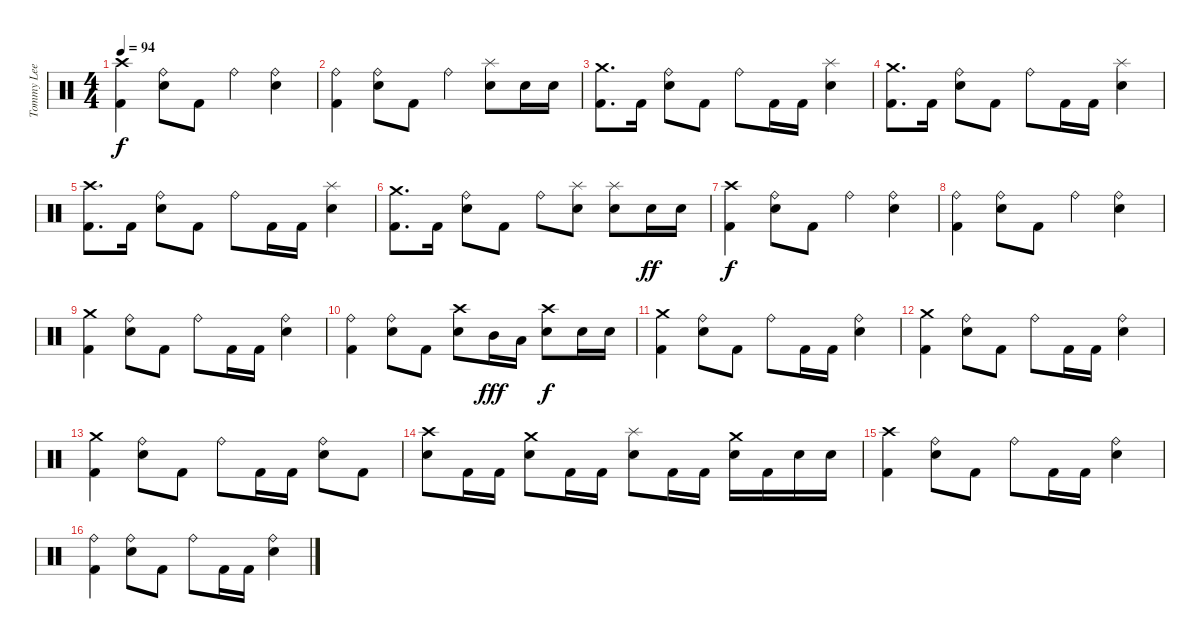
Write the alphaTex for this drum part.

\track ("Tommy Lee" "Tommy Lee") {instrument percussion}
\staff {score}
\articulation defaults
\ts (4 4)
\tempo 94
\clef neutral
\ks c
("Crash high (hit)" "Kick (hit) 2").4{dy f} ("Ride (bell)" "Snare (hit) 2").8 "Kick (hit) 2".8 "Ride (bell)".4 ("Ride (bell)" "Snare (hit) 2").4 |
("Ride (bell)" "Kick (hit) 2").4 ("Ride (bell)" "Snare (hit) 2").8 "Kick (hit) 2".8 "Ride (bell)".4 ("Splash (hit)" "Snare (hit) 2").8 "Snare (hit) 2".16 "Snare (hit) 2".16 |
("Crash medium (hit)" "Kick (hit) 2").8{d} "Kick (hit) 2".16 ("Ride (bell)" "Snare (hit) 2").8 "Kick (hit) 2".8 "Ride (bell)".8 "Kick (hit) 2".16 "Kick (hit) 2".16 ("Splash (hit)" "Snare (hit) 2").4 |
("Crash medium (hit)" "Kick (hit) 2").8{d} "Kick (hit) 2".16 ("Ride (bell)" "Snare (hit) 2").8 "Kick (hit) 2".8 "Ride (bell)".8 "Kick (hit) 2".16 "Kick (hit) 2".16 ("Splash (hit)" "Snare (hit) 2").4 |
("Crash high (hit)" "Kick (hit) 2").8{d} "Kick (hit) 2".16 ("Ride (bell)" "Snare (hit) 2").8 "Kick (hit) 2".8 "Ride (bell)".8 "Kick (hit) 2".16 "Kick (hit) 2".16 ("Splash (hit)" "Snare (hit) 2").4 |
("Crash medium (hit)" "Kick (hit) 2").8{d} "Kick (hit) 2".16 ("Ride (bell)" "Snare (hit) 2").8 "Kick (hit) 2".8 "Ride (bell)".8 ("Splash (hit)" "Snare (hit) 2").8 ("Splash (hit)" "Snare (hit) 2").8 "Snare (hit) 2".16{dy ff} "Snare (hit) 2".16 |
("Crash high (hit)" "Kick (hit) 2").4{dy f} ("Ride (bell)" "Snare (hit) 2").8 "Kick (hit) 2".8 "Ride (bell)".4 ("Ride (bell)" "Snare (hit) 2").4 |
("Ride (bell)" "Kick (hit) 2").4 ("Ride (bell)" "Snare (hit) 2").8 "Kick (hit) 2".8 "Ride (bell)".4 ("Ride (bell)" "Snare (hit) 2").4 |
("Crash medium (hit)" "Kick (hit) 2").4 ("Ride (bell)" "Snare (hit) 2").8 "Kick (hit) 2".8 "Ride (bell)".8 "Kick (hit) 2".16 "Kick (hit) 2".16 ("Ride (bell)" "Snare (hit) 2").4 |
("Ride (bell)" "Kick (hit) 2").4 ("Ride (bell)" "Snare (hit) 2").8 "Kick (hit) 2".8 ("Crash high (hit)" "Snare (hit) 2").8 "Mid Tom (hit)".16{dy fff} "Low Tom (hit)".16 ("Crash high (hit)" "Snare (hit) 2").8{dy f} "Snare (hit) 2".16 "Snare (hit) 2".16 |
("Crash medium (hit)" "Kick (hit) 2").4 ("Ride (bell)" "Snare (hit) 2").8 "Kick (hit) 2".8 "Ride (bell)".8 "Kick (hit) 2".16 "Kick (hit) 2".16 ("Ride (bell)" "Snare (hit) 2").4 |
("Crash medium (hit)" "Kick (hit) 2").4 ("Ride (bell)" "Snare (hit) 2").8 "Kick (hit) 2".8 "Ride (bell)".8 "Kick (hit) 2".16 "Kick (hit) 2".16 ("Ride (bell)" "Snare (hit) 2").4 |
("Crash medium (hit)" "Kick (hit) 2").4 ("Ride (bell)" "Snare (hit) 2").8 "Kick (hit) 2".8 "Ride (bell)".8 "Kick (hit) 2".16 "Kick (hit) 2".16 ("Ride (bell)" "Snare (hit) 2").8 "Kick (hit) 2".8 |
("Crash high (hit)" "Snare (hit) 2").8 "Kick (hit) 2".16 "Kick (hit) 2".16 ("Crash medium (hit)" "Snare (hit) 2").8 "Kick (hit) 2".16 "Kick (hit) 2".16 ("Splash (hit)" "Snare (hit) 2").8 "Kick (hit) 2".16 "Kick (hit) 2".16 ("Crash medium (hit)" "Snare (hit) 2").16 "Kick (hit) 2".16 "Snare (hit) 2".16 "Snare (hit) 2".16 |
("Crash high (hit)" "Kick (hit) 2").4 ("Ride (bell)" "Snare (hit) 2").8 "Kick (hit) 2".8 "Ride (bell)".8 "Kick (hit) 2".16 "Kick (hit) 2".16 ("Ride (bell)" "Snare (hit) 2").4 |
("Ride (bell)" "Kick (hit) 2").4 ("Ride (bell)" "Snare (hit) 2").8 "Kick (hit) 2".8 "Ride (bell)".8 "Kick (hit) 2".16 "Kick (hit) 2".16 ("Ride (bell)" "Snare (hit) 2").4
